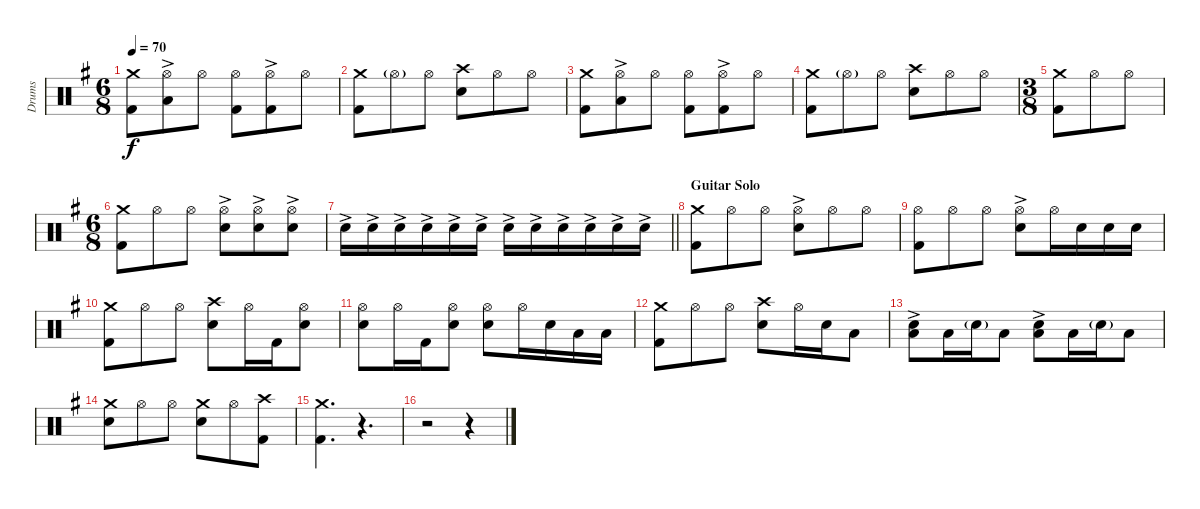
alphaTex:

\track ("Drums" "Drums") {instrument percussion}
\staff {score}
\articulation defaults
\ts (6 8)
\tempo 70
\clef neutral
\ks g
("Crash medium (hit)" "Kick (hit) 2").8{dy f} ("Hi-Hat (open)"{ac} "Low Tom (hit)").8 "Hi-Hat (open)".8 ("Hi-Hat (open)" "Kick (hit) 2").8 ("Hi-Hat (open)"{ac} "Kick (hit) 2").8 "Hi-Hat (open)".8 |
("Crash medium (hit)" "Kick (hit) 2").8 "Hi-Hat (open)"{g}.8 "Hi-Hat (open)".8 ("Crash high (hit)" "Snare (hit) 2").8 "Hi-Hat (open)".8 "Hi-Hat (open)".8 |
("Crash medium (hit)" "Kick (hit) 2").8 ("Hi-Hat (open)"{ac} "Low Tom (hit)").8 "Hi-Hat (open)".8 ("Hi-Hat (open)" "Kick (hit) 2").8 ("Hi-Hat (open)"{ac} "Kick (hit) 2").8 "Hi-Hat (open)".8 |
("Crash medium (hit)" "Kick (hit) 2").8 "Hi-Hat (open)"{g}.8 "Hi-Hat (open)".8 ("Crash high (hit)" "Snare (hit) 2").8 "Hi-Hat (open)".8 "Hi-Hat (open)".8 |
\ts (3 8)
("Crash medium (hit)" "Kick (hit) 2").8 "Hi-Hat (open)".8 "Hi-Hat (open)".8 |
\ts (6 8)
("Crash medium (hit)" "Kick (hit) 2").8 "Hi-Hat (open)".8 "Hi-Hat (open)".8 ("Snare (hit) 2" "Hi-Hat (open)"{ac}).8 ("Snare (hit) 2" "Hi-Hat (open)"{ac}).8 ("Snare (hit) 2" "Hi-Hat (open)"{ac}).8 |
\barLineRight lightlight "Snare (hit) 2"{ac}.16 "Snare (hit) 2"{ac}.16 "Snare (hit) 2"{ac}.16 "Snare (hit) 2"{ac}.16 "Snare (hit) 2"{ac}.16 "Snare (hit) 2"{ac}.16 "Snare (hit) 2"{ac}.16 "Snare (hit) 2"{ac}.16 "Snare (hit) 2"{ac}.16 "Snare (hit) 2"{ac}.16 "Snare (hit) 2"{ac}.16 "Snare (hit) 2"{ac}.16
|
\section ("" "Guitar Solo")
("Crash medium (hit)" "Kick (hit) 2").8 "Hi-Hat (open)".8 "Hi-Hat (open)".8 ("Hi-Hat (open)"{ac} "Snare (hit) 2").8 "Hi-Hat (open)".8 "Hi-Hat (open)".8 |
("Hi-Hat (open)" "Kick (hit) 2").8 "Hi-Hat (open)".8 "Hi-Hat (open)".8 ("Hi-Hat (open)"{ac} "Snare (hit) 2").8 "Hi-Hat (open)".16 "Snare (hit) 2".16 "Snare (hit) 2".16 "Snare (hit) 2".16 |
("Crash medium (hit)" "Kick (hit) 2").8 "Hi-Hat (open)".8 "Hi-Hat (open)".8 ("Crash high (hit)" "Snare (hit) 2").8 "Hi-Hat (open)".16 "Kick (hit) 2".16 ("Hi-Hat (open)" "Snare (hit) 2").8 |
("Hi-Hat (open)" "Snare (hit) 2").8 "Hi-Hat (open)".16 "Kick (hit) 2".16 ("Hi-Hat (open)" "Snare (hit) 2").8 ("Hi-Hat (open)" "Snare (hit) 2").8 "Hi-Hat (open)".16 "Snare (hit) 2".16 "Low Tom (hit)".16 "Low Tom (hit)".16 |
("Crash medium (hit)" "Kick (hit) 2").8 "Hi-Hat (open)".8 "Hi-Hat (open)".8 ("Crash high (hit)" "Snare (hit) 2").8 "Hi-Hat (open)".16 "Snare (hit) 2".16 "Low Tom (hit)".8 |
("Snare (hit) 2"{ac} "Low Tom (hit)").8 "Low Tom (hit)".16 "Snare (hit) 2"{g}.16 "Low Tom (hit)".8 ("Snare (hit) 2"{ac} "Low Tom (hit)").8 "Low Tom (hit)".16 "Snare (hit) 2"{g}.16 "Low Tom (hit)".8 |
("Crash medium (hit)" "Snare (hit) 2").8 "Hi-Hat (open)".8 "Hi-Hat (open)".8 ("Crash medium (hit)" "Snare (hit) 2").8 "Hi-Hat (open)".8 ("Crash high (hit)" "Kick (hit) 2").8 |
("Crash medium (hit)" "Kick (hit) 2").4{d} r.4{d} |
r.2 r.4
